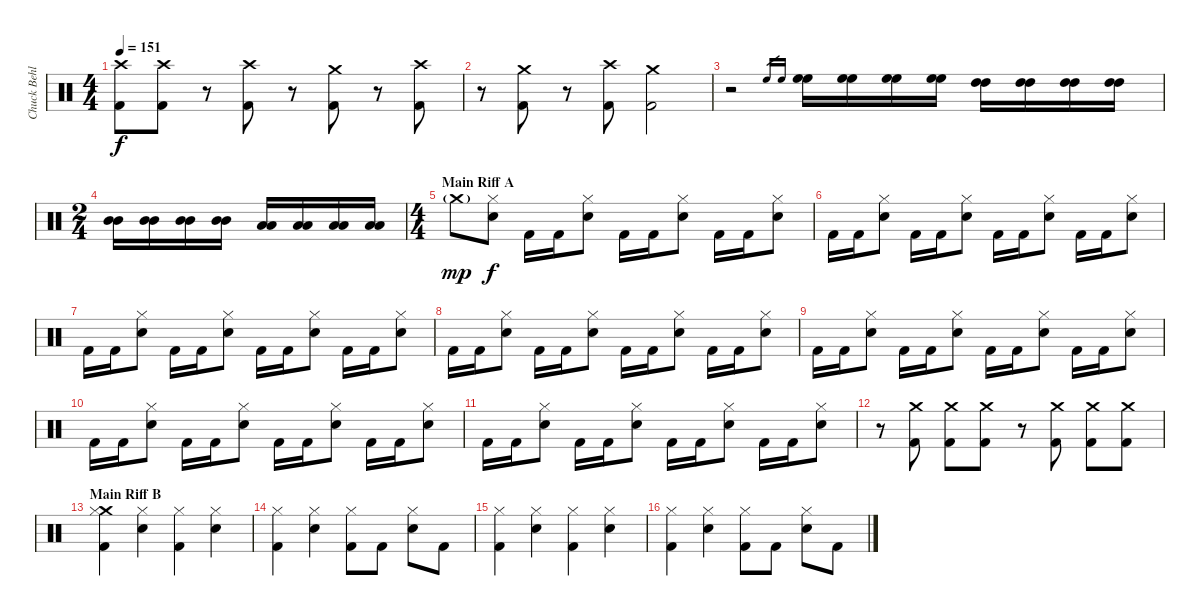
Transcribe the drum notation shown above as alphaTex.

\track ("Chuck Behler" "Chuck Behl") {instrument percussion}
\staff {score}
\articulation defaults
\ts (4 4)
\tempo 151
\clef neutral
\ks c
("Crash high (hit)" "Kick (hit) 2").8{dy f} ("Crash high (hit)" "Kick (hit) 2").8 r.8 ("Crash high (hit)" "Kick (hit) 2").8 r.8 ("Crash medium (hit)" "Kick (hit) 2").8 r.8 ("Crash high (hit)" "Kick (hit) 2").8 |
r.8 ("Crash medium (hit)" "Kick (hit) 2").8 r.8 ("Crash high (hit)" "Kick (hit) 2").8 ("Crash medium (hit)" "Kick (hit) 2").2 |
r.2 "High Floor Tom (hit)".16{gr} "High Floor Tom (hit)".16{gr} ("High Floor Tom (hit)" "High Floor Tom (hit)").16 ("High Floor Tom (hit)" "High Floor Tom (hit)").16 ("High Floor Tom (hit)" "High Floor Tom (hit)").16 ("High Floor Tom (hit)" "High Floor Tom (hit)").16 ("High Tom (hit)" "High Tom (hit)").16 ("High Tom (hit)" "High Tom (hit)").16 ("High Tom (hit)" "High Tom (hit)").16 ("High Tom (hit)" "High Tom (hit)").16 |
\ts (2 4)
("Mid Tom (hit)" "Mid Tom (hit)").16 ("Mid Tom (hit)" "Mid Tom (hit)").16 ("Mid Tom (hit)" "Mid Tom (hit)").16 ("Mid Tom (hit)" "Mid Tom (hit)").16 ("Low Tom (hit)" "Low Tom (hit)").16 ("Low Tom (hit)" "Low Tom (hit)").16 ("Low Tom (hit)" "Low Tom (hit)").16 ("Low Tom (hit)" "Low Tom (hit)").16 |
\ts (4 4)
\section ("" "Main Riff A")
"Crash medium (hit)"{g}.8{dy mp} ("Hi-Hat (closed)" "Electric Snare (hit)").8{dy f} "Kick (hit) 2".16 "Kick (hit) 2".16 ("Hi-Hat (closed)" "Electric Snare (hit)").8 "Kick (hit) 2".16 "Kick (hit) 2".16 ("Hi-Hat (closed)" "Electric Snare (hit)").8 "Kick (hit) 2".16 "Kick (hit) 2".16 ("Hi-Hat (closed)" "Electric Snare (hit)").8 |
"Kick (hit) 2".16 "Kick (hit) 2".16 ("Hi-Hat (closed)" "Electric Snare (hit)").8 "Kick (hit) 2".16 "Kick (hit) 2".16 ("Hi-Hat (closed)" "Electric Snare (hit)").8 "Kick (hit) 2".16 "Kick (hit) 2".16 ("Hi-Hat (closed)" "Electric Snare (hit)").8 "Kick (hit) 2".16 "Kick (hit) 2".16 ("Hi-Hat (closed)" "Electric Snare (hit)").8 |
"Kick (hit) 2".16 "Kick (hit) 2".16 ("Hi-Hat (closed)" "Electric Snare (hit)").8 "Kick (hit) 2".16 "Kick (hit) 2".16 ("Hi-Hat (closed)" "Electric Snare (hit)").8 "Kick (hit) 2".16 "Kick (hit) 2".16 ("Hi-Hat (closed)" "Electric Snare (hit)").8 "Kick (hit) 2".16 "Kick (hit) 2".16 ("Hi-Hat (closed)" "Electric Snare (hit)").8 |
"Kick (hit) 2".16 "Kick (hit) 2".16 ("Hi-Hat (closed)" "Electric Snare (hit)").8 "Kick (hit) 2".16 "Kick (hit) 2".16 ("Hi-Hat (closed)" "Electric Snare (hit)").8 "Kick (hit) 2".16 "Kick (hit) 2".16 ("Hi-Hat (closed)" "Electric Snare (hit)").8 "Kick (hit) 2".16 "Kick (hit) 2".16 ("Hi-Hat (closed)" "Electric Snare (hit)").8 |
"Kick (hit) 2".16 "Kick (hit) 2".16 ("Hi-Hat (closed)" "Electric Snare (hit)").8 "Kick (hit) 2".16 "Kick (hit) 2".16 ("Hi-Hat (closed)" "Electric Snare (hit)").8 "Kick (hit) 2".16 "Kick (hit) 2".16 ("Hi-Hat (closed)" "Electric Snare (hit)").8 "Kick (hit) 2".16 "Kick (hit) 2".16 ("Hi-Hat (closed)" "Electric Snare (hit)").8 |
"Kick (hit) 2".16 "Kick (hit) 2".16 ("Hi-Hat (closed)" "Electric Snare (hit)").8 "Kick (hit) 2".16 "Kick (hit) 2".16 ("Hi-Hat (closed)" "Electric Snare (hit)").8 "Kick (hit) 2".16 "Kick (hit) 2".16 ("Hi-Hat (closed)" "Electric Snare (hit)").8 "Kick (hit) 2".16 "Kick (hit) 2".16 ("Hi-Hat (closed)" "Electric Snare (hit)").8 |
"Kick (hit) 2".16 "Kick (hit) 2".16 ("Hi-Hat (closed)" "Electric Snare (hit)").8 "Kick (hit) 2".16 "Kick (hit) 2".16 ("Hi-Hat (closed)" "Electric Snare (hit)").8 "Kick (hit) 2".16 "Kick (hit) 2".16 ("Hi-Hat (closed)" "Electric Snare (hit)").8 "Kick (hit) 2".16 "Kick (hit) 2".16 ("Hi-Hat (closed)" "Electric Snare (hit)").8 |
r.8 ("Crash medium (hit)" "Kick (hit) 2").8 ("Crash medium (hit)" "Kick (hit) 2").8 ("Crash medium (hit)" "Kick (hit) 2").8 r.8 ("Crash medium (hit)" "Kick (hit) 2").8 ("Crash medium (hit)" "Kick (hit) 2").8 ("Crash medium (hit)" "Kick (hit) 2").8 |
\section ("" "Main Riff B")
("Crash medium (hit)" "Hi-Hat (closed)" "Kick (hit) 2").4 ("Hi-Hat (closed)" "Electric Snare (hit)").4 ("Hi-Hat (closed)" "Kick (hit) 2").4 ("Hi-Hat (closed)" "Electric Snare (hit)").4 |
("Hi-Hat (closed)" "Kick (hit) 2").4 ("Hi-Hat (closed)" "Electric Snare (hit)").4 ("Hi-Hat (closed)" "Kick (hit) 2").8 "Kick (hit) 2".8 ("Hi-Hat (closed)" "Electric Snare (hit)").8 "Kick (hit) 2".8 |
("Hi-Hat (closed)" "Kick (hit) 2").4 ("Hi-Hat (closed)" "Electric Snare (hit)").4 ("Hi-Hat (closed)" "Kick (hit) 2").4 ("Hi-Hat (closed)" "Electric Snare (hit)").4 |
("Hi-Hat (closed)" "Kick (hit) 2").4 ("Hi-Hat (closed)" "Electric Snare (hit)").4 ("Hi-Hat (closed)" "Kick (hit) 2").8 "Kick (hit) 2".8 ("Hi-Hat (closed)" "Electric Snare (hit)").8 "Kick (hit) 2".8
